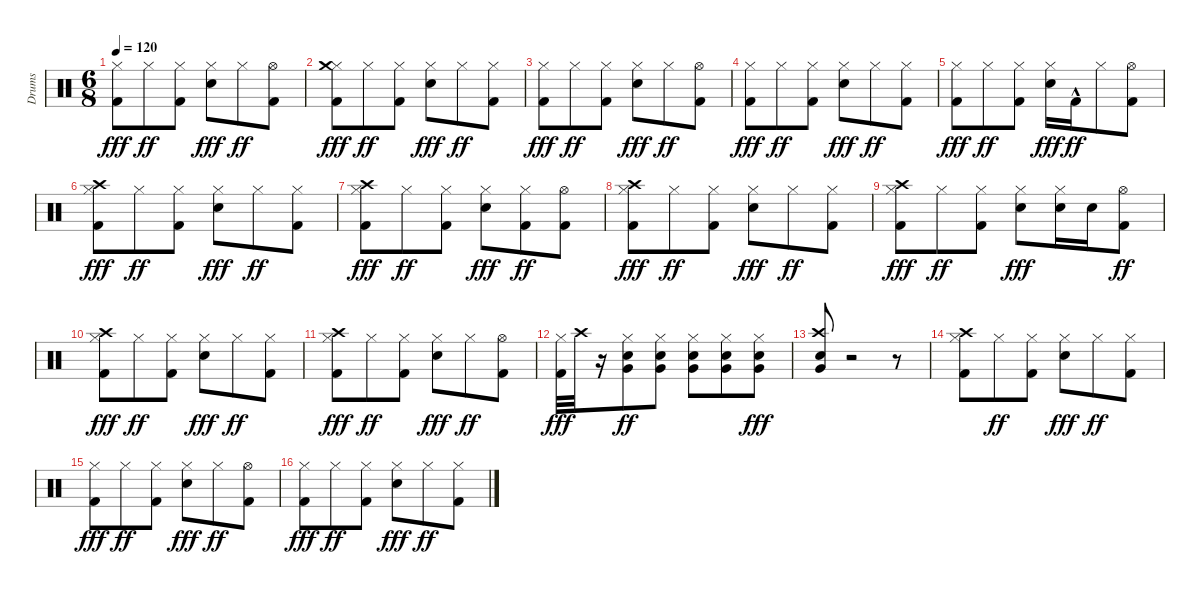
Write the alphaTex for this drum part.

\track ("Drums" "Drums") {instrument percussion}
\staff {score}
\articulation defaults
\ts (6 8)
\tempo 120
\clef neutral
\ks c
("Hi-Hat (closed)" "Kick (hit) 2").8{dy fff} "Hi-Hat (closed)".8{dy ff} ("Hi-Hat (closed)" "Kick (hit) 2").8 ("Hi-Hat (closed)" "Snare (hit) 2").8{dy fff} "Hi-Hat (closed)".8{dy ff} ("Hi-Hat (open)" "Kick (hit) 2").8 |
("Hi-Hat (closed)" "Kick (hit) 2" "Crash medium (hit)").8{dy fff} "Hi-Hat (closed)".8{dy ff} ("Hi-Hat (closed)" "Kick (hit) 2").8 ("Hi-Hat (closed)" "Snare (hit) 2").8{dy fff} "Hi-Hat (closed)".8{dy ff} ("Hi-Hat (closed)" "Kick (hit) 2").8 |
("Hi-Hat (closed)" "Kick (hit) 2").8{dy fff} "Hi-Hat (closed)".8{dy ff} ("Hi-Hat (closed)" "Kick (hit) 2").8 ("Hi-Hat (closed)" "Snare (hit) 2").8{dy fff} "Hi-Hat (closed)".8{dy ff} ("Hi-Hat (open)" "Kick (hit) 2").8 |
("Hi-Hat (closed)" "Kick (hit) 2").8{dy fff} "Hi-Hat (closed)".8{dy ff} ("Hi-Hat (closed)" "Kick (hit) 2").8 ("Hi-Hat (closed)" "Snare (hit) 2").8{dy fff} "Hi-Hat (closed)".8{dy ff} ("Hi-Hat (closed)" "Kick (hit) 2").8 |
("Hi-Hat (closed)" "Kick (hit) 2").8{dy fff} "Hi-Hat (closed)".8{dy ff} ("Hi-Hat (closed)" "Kick (hit) 2").8 ("Hi-Hat (closed)" "Snare (hit) 2").16{dy fff} "Kick (hit) 2"{hac}.16{dy ff} "Hi-Hat (closed)".8 ("Hi-Hat (open)" "Kick (hit) 2").8 |
("Hi-Hat (closed)" "Kick (hit) 2" "Crash high (hit)").8{dy fff} "Hi-Hat (closed)".8{dy ff} ("Hi-Hat (closed)" "Kick (hit) 2").8 ("Hi-Hat (closed)" "Snare (hit) 2").8{dy fff} "Hi-Hat (closed)".8{dy ff} ("Hi-Hat (closed)" "Kick (hit) 2").8 |
("Hi-Hat (closed)" "Kick (hit) 2" "Crash high (hit)").8{dy fff} "Hi-Hat (closed)".8{dy ff} ("Hi-Hat (closed)" "Kick (hit) 2").8 ("Hi-Hat (closed)" "Snare (hit) 2").8{dy fff} ("Hi-Hat (closed)" "Kick (hit) 2").8{dy ff} ("Hi-Hat (open)" "Kick (hit) 2").8 |
("Hi-Hat (closed)" "Kick (hit) 2" "Crash high (hit)").8{dy fff} "Hi-Hat (closed)".8{dy ff} ("Hi-Hat (closed)" "Kick (hit) 2").8 ("Hi-Hat (closed)" "Snare (hit) 2").8{dy fff} "Hi-Hat (closed)".8{dy ff} ("Hi-Hat (closed)" "Kick (hit) 2").8 |
("Hi-Hat (closed)" "Kick (hit) 2" "Crash high (hit)").8{dy fff} "Hi-Hat (closed)".8{dy ff} ("Hi-Hat (closed)" "Kick (hit) 2").8 ("Hi-Hat (closed)" "Snare (hit) 2").8{dy fff} ("Hi-Hat (closed)" "Snare (hit) 2").16 "Snare (hit) 2".16 ("Hi-Hat (open)" "Kick (hit) 2").8{dy ff} |
("Hi-Hat (closed)" "Kick (hit) 2" "Crash high (hit)").8{dy fff} "Hi-Hat (closed)".8{dy ff} ("Hi-Hat (closed)" "Kick (hit) 2").8 ("Hi-Hat (closed)" "Snare (hit) 2").8{dy fff} "Hi-Hat (closed)".8{dy ff} ("Hi-Hat (closed)" "Kick (hit) 2").8 |
("Crash high (hit)" "Hi-Hat (closed)" "Kick (hit) 2").8{dy fff} "Hi-Hat (closed)".8{dy ff} ("Hi-Hat (closed)" "Kick (hit) 2").8 ("Hi-Hat (closed)" "Snare (hit) 2").8{dy fff} "Hi-Hat (closed)".8{dy ff} ("Hi-Hat (open)" "Kick (hit) 2").8 |
("Hi-Hat (closed)" "Kick (hit) 2").32{dy fff} "Crash high (hit)".32 r.16 ("Hi-Hat (closed)" "Snare (hit) 2" "Very Low Tom (hit)").8{dy ff} ("Hi-Hat (closed)" "Very Low Tom (hit)" "Snare (hit) 2").8 ("Hi-Hat (closed)" "Very Low Tom (hit)" "Snare (hit) 2").8 ("Hi-Hat (closed)" "Very Low Tom (hit)" "Snare (hit) 2").8 ("Hi-Hat (closed)" "Very Low Tom (hit)" "Snare (hit) 2").8{dy fff} |
("Very Low Tom (hit)" "Snare (hit) 2" "Crash high (hit)").8 r.2 r.8 |
("Hi-Hat (closed)" "Kick (hit) 2" "Crash high (hit)").8 "Hi-Hat (closed)".8{dy ff} ("Hi-Hat (closed)" "Kick (hit) 2").8 ("Hi-Hat (closed)" "Snare (hit) 2").8{dy fff} "Hi-Hat (closed)".8{dy ff} ("Hi-Hat (closed)" "Kick (hit) 2").8 |
("Hi-Hat (closed)" "Kick (hit) 2").8{dy fff} "Hi-Hat (closed)".8{dy ff} ("Hi-Hat (closed)" "Kick (hit) 2").8 ("Hi-Hat (closed)" "Snare (hit) 2").8{dy fff} "Hi-Hat (closed)".8{dy ff} ("Hi-Hat (open)" "Kick (hit) 2").8 |
("Hi-Hat (closed)" "Kick (hit) 2").8{dy fff} "Hi-Hat (closed)".8{dy ff} ("Hi-Hat (closed)" "Kick (hit) 2").8 ("Hi-Hat (closed)" "Snare (hit) 2").8{dy fff} "Hi-Hat (closed)".8{dy ff} ("Hi-Hat (closed)" "Kick (hit) 2").8
